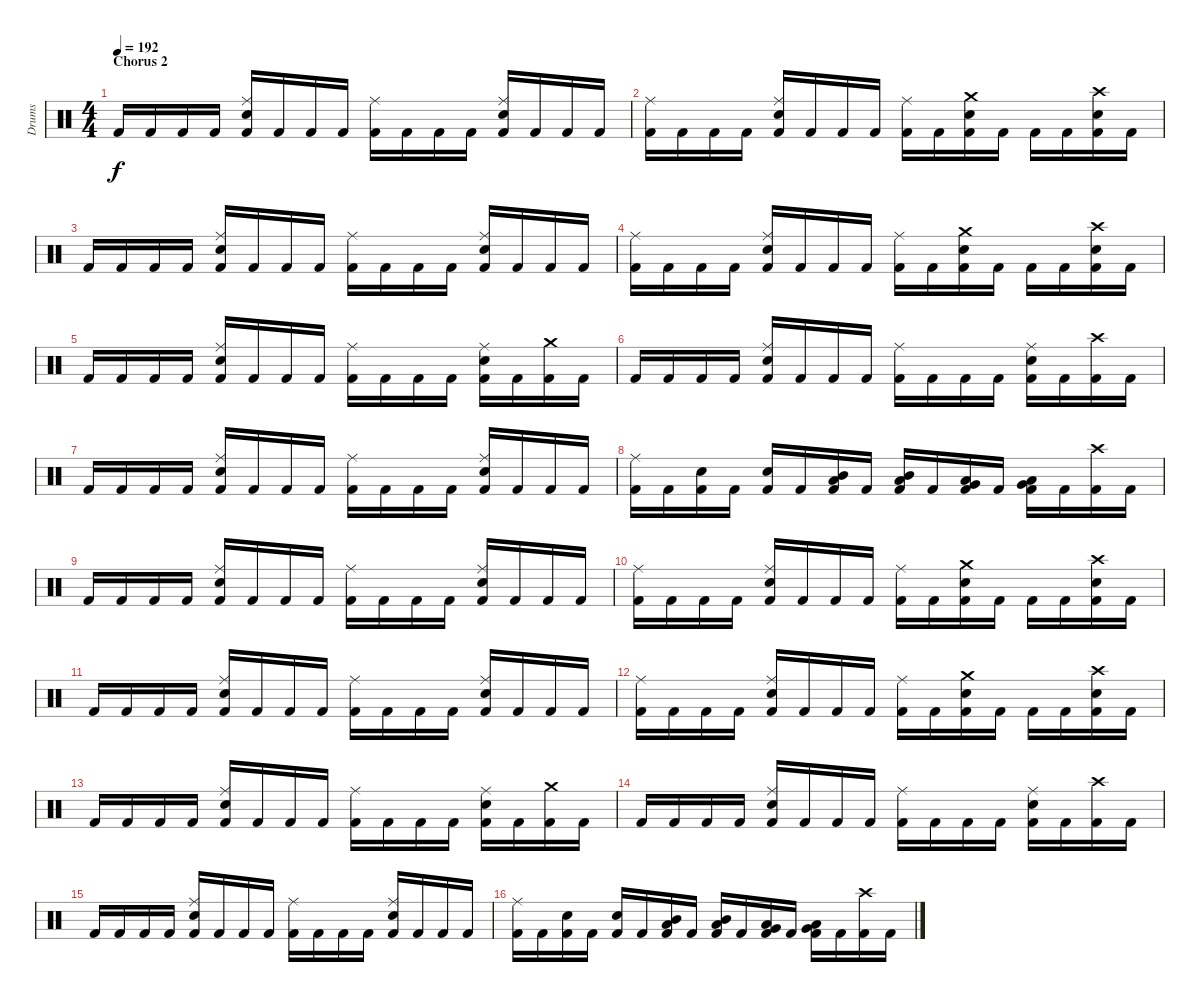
\track ("Drums" "Drums") {instrument percussion}
\staff {score}
\articulation defaults
\ts (4 4)
\section ("" "Chorus 2")
\tempo 192
\clef neutral
\ks c "Kick (hit) 2".16{dy f} "Kick (hit) 2".16 "Kick (hit) 2".16 "Kick (hit) 2".16
("Ride (middle)" "Snare (hit) 2" "Kick (hit) 2").16 "Kick (hit) 2".16 "Kick (hit) 2".16 "Kick (hit) 2".16 ("Ride (middle)" "Kick (hit) 2").16 "Kick (hit) 2".16 "Kick (hit) 2".16 "Kick (hit) 2".16 ("Ride (middle)" "Snare (hit) 2" "Kick (hit) 2").16 "Kick (hit) 2".16 "Kick (hit) 2".16 "Kick (hit) 2".16 |
("Ride (middle)" "Kick (hit) 2").16 "Kick (hit) 2".16 "Kick (hit) 2".16 "Kick (hit) 2".16 ("Ride (middle)" "Snare (hit) 2" "Kick (hit) 2").16 "Kick (hit) 2".16 "Kick (hit) 2".16 "Kick (hit) 2".16 ("Ride (middle)" "Kick (hit) 2").16 "Kick (hit) 2".16 ("Crash medium (hit)" "Snare (hit) 2" "Kick (hit) 2").16 "Kick (hit) 2".16 "Kick (hit) 2".16 "Kick (hit) 2".16 ("Crash high (hit)" "Snare (hit) 2" "Kick (hit) 2").16 "Kick (hit) 2".16 |
"Kick (hit) 2".16 "Kick (hit) 2".16 "Kick (hit) 2".16 "Kick (hit) 2".16 ("Ride (middle)" "Snare (hit) 2" "Kick (hit) 2").16 "Kick (hit) 2".16 "Kick (hit) 2".16 "Kick (hit) 2".16 ("Ride (middle)" "Kick (hit) 2").16 "Kick (hit) 2".16 "Kick (hit) 2".16 "Kick (hit) 2".16 ("Ride (middle)" "Snare (hit) 2" "Kick (hit) 2").16 "Kick (hit) 2".16 "Kick (hit) 2".16 "Kick (hit) 2".16 |
("Ride (middle)" "Kick (hit) 2").16 "Kick (hit) 2".16 "Kick (hit) 2".16 "Kick (hit) 2".16 ("Ride (middle)" "Snare (hit) 2" "Kick (hit) 2").16 "Kick (hit) 2".16 "Kick (hit) 2".16 "Kick (hit) 2".16 ("Ride (middle)" "Kick (hit) 2").16 "Kick (hit) 2".16 ("Crash medium (hit)" "Snare (hit) 2" "Kick (hit) 2").16 "Kick (hit) 2".16 "Kick (hit) 2".16 "Kick (hit) 2".16 ("Crash high (hit)" "Snare (hit) 2" "Kick (hit) 2").16 "Kick (hit) 2".16 |
"Kick (hit) 2".16 "Kick (hit) 2".16 "Kick (hit) 2".16 "Kick (hit) 2".16 ("Ride (middle)" "Snare (hit) 2" "Kick (hit) 2").16 "Kick (hit) 2".16 "Kick (hit) 2".16 "Kick (hit) 2".16 ("Ride (middle)" "Kick (hit) 2").16 "Kick (hit) 2".16 "Kick (hit) 2".16 "Kick (hit) 2".16 ("Ride (middle)" "Snare (hit) 2" "Kick (hit) 2").16 "Kick (hit) 2".16 ("Crash medium (hit)" "Kick (hit) 2").16 "Kick (hit) 2".16 |
"Kick (hit) 2".16 "Kick (hit) 2".16 "Kick (hit) 2".16 "Kick (hit) 2".16 ("Ride (middle)" "Snare (hit) 2" "Kick (hit) 2").16 "Kick (hit) 2".16 "Kick (hit) 2".16 "Kick (hit) 2".16 ("Ride (middle)" "Kick (hit) 2").16 "Kick (hit) 2".16 "Kick (hit) 2".16 "Kick (hit) 2".16 ("Ride (middle)" "Snare (hit) 2" "Kick (hit) 2").16 "Kick (hit) 2".16 ("Crash high (hit)" "Kick (hit) 2").16 "Kick (hit) 2".16 |
"Kick (hit) 2".16 "Kick (hit) 2".16 "Kick (hit) 2".16 "Kick (hit) 2".16 ("Ride (middle)" "Snare (hit) 2" "Kick (hit) 2").16 "Kick (hit) 2".16 "Kick (hit) 2".16 "Kick (hit) 2".16 ("Ride (middle)" "Kick (hit) 2").16 "Kick (hit) 2".16 "Kick (hit) 2".16 "Kick (hit) 2".16 ("Ride (middle)" "Snare (hit) 2" "Kick (hit) 2").16 "Kick (hit) 2".16 "Kick (hit) 2".16 "Kick (hit) 2".16 |
("Ride (middle)" "Kick (hit) 2").16 "Kick (hit) 2".16 ("Snare (hit) 2" "Kick (hit) 2").16 "Kick (hit) 2".16 ("Snare (hit) 2" "Kick (hit) 2").16 "Kick (hit) 2".16 ("Mid Tom (hit)" "Low Tom (hit)" "Kick (hit) 2").16 "Kick (hit) 2".16 ("Mid Tom (hit)" "Low Tom (hit)" "Kick (hit) 2").16 "Kick (hit) 2".16 ("Low Tom (hit)" "Very Low Tom (hit)" "Kick (hit) 2").16 "Kick (hit) 2".16 ("Low Tom (hit)" "Very Low Tom (hit)" "Kick (hit) 2").16 "Kick (hit) 2".16 ("Crash high (hit)" "Kick (hit) 2").16 "Kick (hit) 2".16 |
"Kick (hit) 2".16 "Kick (hit) 2".16 "Kick (hit) 2".16 "Kick (hit) 2".16 ("Ride (middle)" "Snare (hit) 2" "Kick (hit) 2").16 "Kick (hit) 2".16 "Kick (hit) 2".16 "Kick (hit) 2".16 ("Ride (middle)" "Kick (hit) 2").16 "Kick (hit) 2".16 "Kick (hit) 2".16 "Kick (hit) 2".16 ("Ride (middle)" "Snare (hit) 2" "Kick (hit) 2").16 "Kick (hit) 2".16 "Kick (hit) 2".16 "Kick (hit) 2".16 |
("Ride (middle)" "Kick (hit) 2").16 "Kick (hit) 2".16 "Kick (hit) 2".16 "Kick (hit) 2".16 ("Ride (middle)" "Snare (hit) 2" "Kick (hit) 2").16 "Kick (hit) 2".16 "Kick (hit) 2".16 "Kick (hit) 2".16 ("Ride (middle)" "Kick (hit) 2").16 "Kick (hit) 2".16 ("Crash medium (hit)" "Snare (hit) 2" "Kick (hit) 2").16 "Kick (hit) 2".16 "Kick (hit) 2".16 "Kick (hit) 2".16 ("Crash high (hit)" "Snare (hit) 2" "Kick (hit) 2").16 "Kick (hit) 2".16 |
"Kick (hit) 2".16 "Kick (hit) 2".16 "Kick (hit) 2".16 "Kick (hit) 2".16 ("Ride (middle)" "Snare (hit) 2" "Kick (hit) 2").16 "Kick (hit) 2".16 "Kick (hit) 2".16 "Kick (hit) 2".16 ("Ride (middle)" "Kick (hit) 2").16 "Kick (hit) 2".16 "Kick (hit) 2".16 "Kick (hit) 2".16 ("Ride (middle)" "Snare (hit) 2" "Kick (hit) 2").16 "Kick (hit) 2".16 "Kick (hit) 2".16 "Kick (hit) 2".16 |
("Ride (middle)" "Kick (hit) 2").16 "Kick (hit) 2".16 "Kick (hit) 2".16 "Kick (hit) 2".16 ("Ride (middle)" "Snare (hit) 2" "Kick (hit) 2").16 "Kick (hit) 2".16 "Kick (hit) 2".16 "Kick (hit) 2".16 ("Ride (middle)" "Kick (hit) 2").16 "Kick (hit) 2".16 ("Crash medium (hit)" "Snare (hit) 2" "Kick (hit) 2").16 "Kick (hit) 2".16 "Kick (hit) 2".16 "Kick (hit) 2".16 ("Crash high (hit)" "Snare (hit) 2" "Kick (hit) 2").16 "Kick (hit) 2".16 |
"Kick (hit) 2".16 "Kick (hit) 2".16 "Kick (hit) 2".16 "Kick (hit) 2".16 ("Ride (middle)" "Snare (hit) 2" "Kick (hit) 2").16 "Kick (hit) 2".16 "Kick (hit) 2".16 "Kick (hit) 2".16 ("Ride (middle)" "Kick (hit) 2").16 "Kick (hit) 2".16 "Kick (hit) 2".16 "Kick (hit) 2".16 ("Ride (middle)" "Snare (hit) 2" "Kick (hit) 2").16 "Kick (hit) 2".16 ("Crash medium (hit)" "Kick (hit) 2").16 "Kick (hit) 2".16 |
"Kick (hit) 2".16 "Kick (hit) 2".16 "Kick (hit) 2".16 "Kick (hit) 2".16 ("Ride (middle)" "Snare (hit) 2" "Kick (hit) 2").16 "Kick (hit) 2".16 "Kick (hit) 2".16 "Kick (hit) 2".16 ("Ride (middle)" "Kick (hit) 2").16 "Kick (hit) 2".16 "Kick (hit) 2".16 "Kick (hit) 2".16 ("Ride (middle)" "Snare (hit) 2" "Kick (hit) 2").16 "Kick (hit) 2".16 ("Crash high (hit)" "Kick (hit) 2").16 "Kick (hit) 2".16 |
"Kick (hit) 2".16 "Kick (hit) 2".16 "Kick (hit) 2".16 "Kick (hit) 2".16 ("Ride (middle)" "Snare (hit) 2" "Kick (hit) 2").16 "Kick (hit) 2".16 "Kick (hit) 2".16 "Kick (hit) 2".16 ("Ride (middle)" "Kick (hit) 2").16 "Kick (hit) 2".16 "Kick (hit) 2".16 "Kick (hit) 2".16 ("Ride (middle)" "Snare (hit) 2" "Kick (hit) 2").16 "Kick (hit) 2".16 "Kick (hit) 2".16 "Kick (hit) 2".16 |
("Ride (middle)" "Kick (hit) 2").16 "Kick (hit) 2".16 ("Snare (hit) 2" "Kick (hit) 2").16 "Kick (hit) 2".16 ("Snare (hit) 2" "Kick (hit) 2").16 "Kick (hit) 2".16 ("Mid Tom (hit)" "Low Tom (hit)" "Kick (hit) 2").16 "Kick (hit) 2".16 ("Mid Tom (hit)" "Low Tom (hit)" "Kick (hit) 2").16 "Kick (hit) 2".16 ("Low Tom (hit)" "Very Low Tom (hit)" "Kick (hit) 2").16 "Kick (hit) 2".16 ("Low Tom (hit)" "Very Low Tom (hit)" "Kick (hit) 2").16 "Kick (hit) 2".16 ("Crash high (hit)" "Kick (hit) 2").16 "Kick (hit) 2".16
